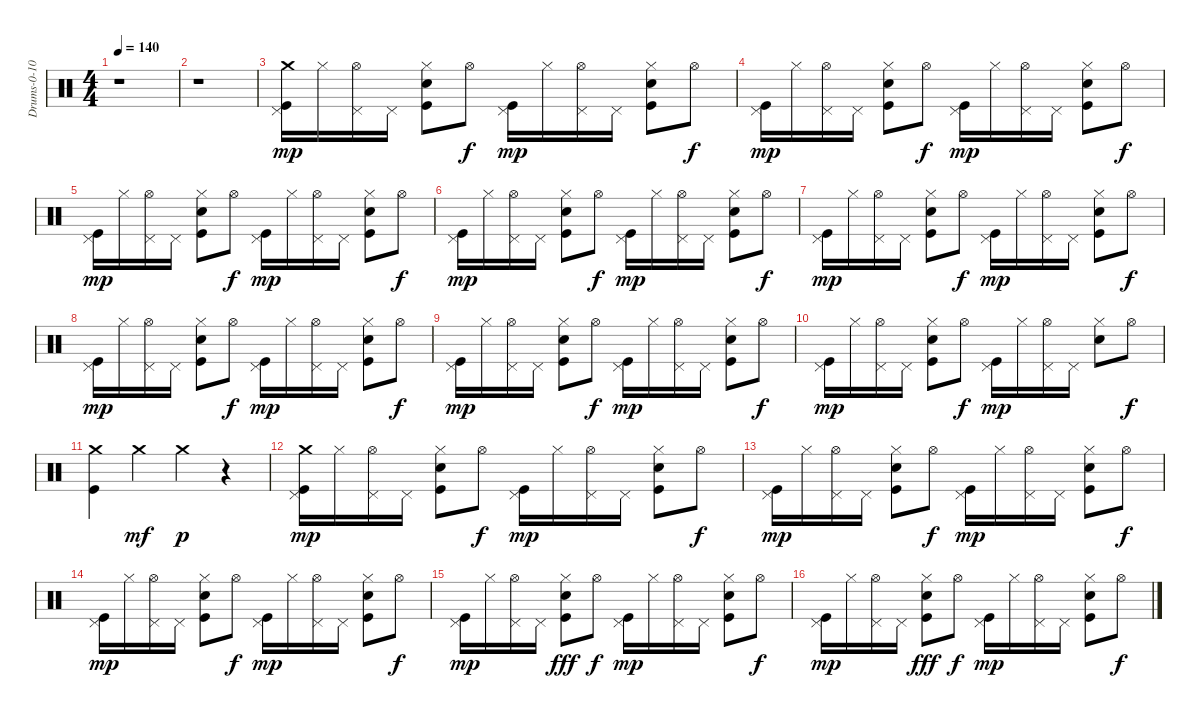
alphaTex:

\track ("Drums-0-10" "Drums-0-10") {instrument percussion}
\staff {score}
\articulation defaults
\ts (4 4)
\tempo 140
\clef neutral
\ks c
r.1{dy f} |
r.1 |
("Crash medium (hit)" "Kick (hit)" "Pedal Hi-Hat (hit)").16{dy mp} "Hi-Hat (closed)".16 ("Pedal Hi-Hat (hit)" "Hi-Hat (open)").16 "Pedal Hi-Hat (hit)".16 ("Kick (hit)" "Hand Clap (hit)" "Hi-Hat (closed)").8 "Hi-Hat (open)".8{dy f} ("Kick (hit)" "Pedal Hi-Hat (hit)").16{dy mp} "Hi-Hat (closed)".16 ("Pedal Hi-Hat (hit)" "Hi-Hat (open)").16 "Pedal Hi-Hat (hit)".16 ("Kick (hit)" "Hand Clap (hit)" "Hi-Hat (closed)").8 "Hi-Hat (open)".8{dy f} |
("Kick (hit)" "Pedal Hi-Hat (hit)").16{dy mp} "Hi-Hat (closed)".16 ("Pedal Hi-Hat (hit)" "Hi-Hat (open)").16 "Pedal Hi-Hat (hit)".16 ("Kick (hit)" "Hand Clap (hit)" "Hi-Hat (closed)").8 "Hi-Hat (open)".8{dy f} ("Kick (hit)" "Pedal Hi-Hat (hit)").16{dy mp} "Hi-Hat (closed)".16 ("Pedal Hi-Hat (hit)" "Hi-Hat (open)").16 "Pedal Hi-Hat (hit)".16 ("Kick (hit)" "Hand Clap (hit)" "Hi-Hat (closed)").8 "Hi-Hat (open)".8{dy f} |
("Kick (hit)" "Pedal Hi-Hat (hit)").16{dy mp} "Hi-Hat (closed)".16 ("Pedal Hi-Hat (hit)" "Hi-Hat (open)").16 "Pedal Hi-Hat (hit)".16 ("Kick (hit)" "Hand Clap (hit)" "Hi-Hat (closed)").8 "Hi-Hat (open)".8{dy f} ("Kick (hit)" "Pedal Hi-Hat (hit)").16{dy mp} "Hi-Hat (closed)".16 ("Pedal Hi-Hat (hit)" "Hi-Hat (open)").16 "Pedal Hi-Hat (hit)".16 ("Kick (hit)" "Hand Clap (hit)" "Hi-Hat (closed)").8 "Hi-Hat (open)".8{dy f} |
("Kick (hit)" "Pedal Hi-Hat (hit)").16{dy mp} "Hi-Hat (closed)".16 ("Pedal Hi-Hat (hit)" "Hi-Hat (open)").16 "Pedal Hi-Hat (hit)".16 ("Kick (hit)" "Hand Clap (hit)" "Hi-Hat (closed)").8 "Hi-Hat (open)".8{dy f} ("Kick (hit)" "Pedal Hi-Hat (hit)").16{dy mp} "Hi-Hat (closed)".16 ("Pedal Hi-Hat (hit)" "Hi-Hat (open)").16 "Pedal Hi-Hat (hit)".16 ("Kick (hit)" "Hand Clap (hit)" "Hi-Hat (closed)").8 "Hi-Hat (open)".8{dy f} |
("Kick (hit)" "Pedal Hi-Hat (hit)").16{dy mp} "Hi-Hat (closed)".16 ("Pedal Hi-Hat (hit)" "Hi-Hat (open)").16 "Pedal Hi-Hat (hit)".16 ("Kick (hit)" "Hand Clap (hit)" "Hi-Hat (closed)").8 "Hi-Hat (open)".8{dy f} ("Kick (hit)" "Pedal Hi-Hat (hit)").16{dy mp} "Hi-Hat (closed)".16 ("Pedal Hi-Hat (hit)" "Hi-Hat (open)").16 "Pedal Hi-Hat (hit)".16 ("Kick (hit)" "Hand Clap (hit)" "Hi-Hat (closed)").8 "Hi-Hat (open)".8{dy f} |
("Kick (hit)" "Pedal Hi-Hat (hit)").16{dy mp} "Hi-Hat (closed)".16 ("Pedal Hi-Hat (hit)" "Hi-Hat (open)").16 "Pedal Hi-Hat (hit)".16 ("Kick (hit)" "Hand Clap (hit)" "Hi-Hat (closed)").8 "Hi-Hat (open)".8{dy f} ("Kick (hit)" "Pedal Hi-Hat (hit)").16{dy mp} "Hi-Hat (closed)".16 ("Pedal Hi-Hat (hit)" "Hi-Hat (open)").16 "Pedal Hi-Hat (hit)".16 ("Kick (hit)" "Hand Clap (hit)" "Hi-Hat (closed)").8 "Hi-Hat (open)".8{dy f} |
("Kick (hit)" "Pedal Hi-Hat (hit)").16{dy mp} "Hi-Hat (closed)".16 ("Pedal Hi-Hat (hit)" "Hi-Hat (open)").16 "Pedal Hi-Hat (hit)".16 ("Kick (hit)" "Hand Clap (hit)" "Hi-Hat (closed)").8 "Hi-Hat (open)".8{dy f} ("Kick (hit)" "Pedal Hi-Hat (hit)").16{dy mp} "Hi-Hat (closed)".16 ("Pedal Hi-Hat (hit)" "Hi-Hat (open)").16 "Pedal Hi-Hat (hit)".16 ("Kick (hit)" "Hand Clap (hit)" "Hi-Hat (closed)").8 "Hi-Hat (open)".8{dy f} |
("Kick (hit)" "Pedal Hi-Hat (hit)").16{dy mp} "Hi-Hat (closed)".16 ("Pedal Hi-Hat (hit)" "Hi-Hat (open)").16 "Pedal Hi-Hat (hit)".16 ("Kick (hit)" "Hand Clap (hit)" "Hi-Hat (closed)").8 "Hi-Hat (open)".8{dy f} ("Kick (hit)" "Pedal Hi-Hat (hit)").16{dy mp} "Hi-Hat (closed)".16 ("Pedal Hi-Hat (hit)" "Hi-Hat (open)").16 "Pedal Hi-Hat (hit)".16 ("Hand Clap (hit)" "Hi-Hat (closed)").8 "Hi-Hat (open)".8{dy f} |
("Kick (hit)" "Crash medium (hit)").4 "Crash medium (hit)".4{dy mf} "Crash medium (hit)".4{dy p} r.4 |
("Crash medium (hit)" "Kick (hit)" "Pedal Hi-Hat (hit)").16{dy mp} "Hi-Hat (closed)".16 ("Hi-Hat (open)" "Pedal Hi-Hat (hit)").16 "Pedal Hi-Hat (hit)".16 ("Kick (hit)" "Hand Clap (hit)" "Hi-Hat (closed)").8 "Hi-Hat (open)".8{dy f} ("Pedal Hi-Hat (hit)" "Kick (hit)").16{dy mp} "Hi-Hat (closed)".16 ("Pedal Hi-Hat (hit)" "Hi-Hat (open)").16 "Pedal Hi-Hat (hit)".16 ("Hi-Hat (closed)" "Hand Clap (hit)" "Kick (hit)").8 "Hi-Hat (open)".8{dy f} |
("Kick (hit)" "Pedal Hi-Hat (hit)").16{dy mp} "Hi-Hat (closed)".16 ("Hi-Hat (open)" "Pedal Hi-Hat (hit)").16 "Pedal Hi-Hat (hit)".16 ("Kick (hit)" "Hand Clap (hit)" "Hi-Hat (closed)").8 "Hi-Hat (open)".8{dy f} ("Pedal Hi-Hat (hit)" "Kick (hit)").16{dy mp} "Hi-Hat (closed)".16 ("Pedal Hi-Hat (hit)" "Hi-Hat (open)").16 "Pedal Hi-Hat (hit)".16 ("Kick (hit)" "Hand Clap (hit)" "Hi-Hat (closed)").8 "Hi-Hat (open)".8{dy f} |
("Kick (hit)" "Pedal Hi-Hat (hit)").16{dy mp} "Hi-Hat (closed)".16 ("Hi-Hat (open)" "Pedal Hi-Hat (hit)").16 "Pedal Hi-Hat (hit)".16 ("Hand Clap (hit)" "Kick (hit)" "Hi-Hat (closed)").8 "Hi-Hat (open)".8{dy f} ("Kick (hit)" "Pedal Hi-Hat (hit)").16{dy mp} "Hi-Hat (closed)".16 ("Pedal Hi-Hat (hit)" "Hi-Hat (open)").16 "Pedal Hi-Hat (hit)".16 ("Hand Clap (hit)" "Kick (hit)" "Hi-Hat (closed)").8 "Hi-Hat (open)".8{dy f} |
("Pedal Hi-Hat (hit)" "Kick (hit)").16{dy mp} "Hi-Hat (closed)".16 ("Pedal Hi-Hat (hit)" "Hi-Hat (open)").16 "Pedal Hi-Hat (hit)".16 ("Kick (hit)" "Hi-Hat (closed)" "Hand Clap (hit)").8{dy fff} "Hi-Hat (open)".8{dy f} ("Kick (hit)" "Pedal Hi-Hat (hit)").16{dy mp} "Hi-Hat (closed)".16 ("Hi-Hat (open)" "Pedal Hi-Hat (hit)").16 "Pedal Hi-Hat (hit)".16 ("Hand Clap (hit)" "Kick (hit)" "Hi-Hat (closed)").8 "Hi-Hat (open)".8{dy f} |
("Pedal Hi-Hat (hit)" "Kick (hit)").16{dy mp} "Hi-Hat (closed)".16 ("Hi-Hat (open)" "Pedal Hi-Hat (hit)").16 "Pedal Hi-Hat (hit)".16 ("Kick (hit)" "Hi-Hat (closed)" "Hand Clap (hit)").8{dy fff} "Hi-Hat (open)".8{dy f} ("Pedal Hi-Hat (hit)" "Kick (hit)").16{dy mp} "Hi-Hat (closed)".16 ("Pedal Hi-Hat (hit)" "Hi-Hat (open)").16 "Pedal Hi-Hat (hit)".16 ("Hand Clap (hit)" "Kick (hit)" "Hi-Hat (closed)").8 "Hi-Hat (open)".8{dy f}
